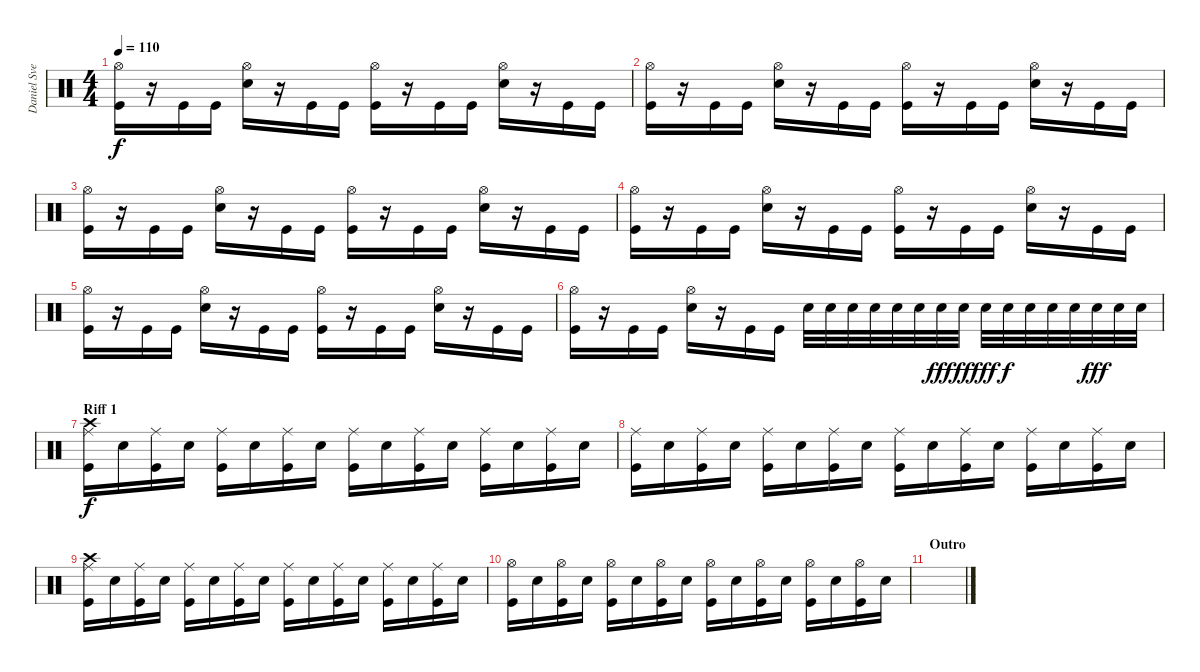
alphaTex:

\track ("Daniel Svensson" "Daniel Sve") {instrument percussion}
\staff {score}
\articulation defaults
\ts (4 4)
\tempo 110
\clef neutral
\ks c
("Hi-Hat (open)" "Kick (hit)").16{dy f} r.16 "Kick (hit)".16 "Kick (hit)".16 ("Hi-Hat (open)" "Electric Snare (hit)").16 r.16 "Kick (hit)".16 "Kick (hit)".16 ("Hi-Hat (open)" "Kick (hit)").16 r.16 "Kick (hit)".16 "Kick (hit)".16 ("Hi-Hat (open)" "Electric Snare (hit)").16 r.16 "Kick (hit)".16 "Kick (hit)".16 |
("Hi-Hat (open)" "Kick (hit)").16 r.16 "Kick (hit)".16 "Kick (hit)".16 ("Hi-Hat (open)" "Electric Snare (hit)").16 r.16 "Kick (hit)".16 "Kick (hit)".16 ("Hi-Hat (open)" "Kick (hit)").16 r.16 "Kick (hit)".16 "Kick (hit)".16 ("Hi-Hat (open)" "Electric Snare (hit)").16 r.16 "Kick (hit)".16 "Kick (hit)".16 |
("Hi-Hat (open)" "Kick (hit)").16 r.16 "Kick (hit)".16 "Kick (hit)".16 ("Hi-Hat (open)" "Electric Snare (hit)").16 r.16 "Kick (hit)".16 "Kick (hit)".16 ("Hi-Hat (open)" "Kick (hit)").16 r.16 "Kick (hit)".16 "Kick (hit)".16 ("Hi-Hat (open)" "Electric Snare (hit)").16 r.16 "Kick (hit)".16 "Kick (hit)".16 |
("Hi-Hat (open)" "Kick (hit)").16 r.16 "Kick (hit)".16 "Kick (hit)".16 ("Hi-Hat (open)" "Electric Snare (hit)").16 r.16 "Kick (hit)".16 "Kick (hit)".16 ("Hi-Hat (open)" "Kick (hit)").16 r.16 "Kick (hit)".16 "Kick (hit)".16 ("Hi-Hat (open)" "Electric Snare (hit)").16 r.16 "Kick (hit)".16 "Kick (hit)".16 |
("Hi-Hat (open)" "Kick (hit)").16 r.16 "Kick (hit)".16 "Kick (hit)".16 ("Hi-Hat (open)" "Electric Snare (hit)").16 r.16 "Kick (hit)".16 "Kick (hit)".16 ("Hi-Hat (open)" "Kick (hit)").16 r.16 "Kick (hit)".16 "Kick (hit)".16 ("Hi-Hat (open)" "Electric Snare (hit)").16 r.16 "Kick (hit)".16 "Kick (hit)".16 |
("Hi-Hat (open)" "Kick (hit)").16 r.16 "Kick (hit)".16 "Kick (hit)".16 ("Hi-Hat (open)" "Electric Snare (hit)").16 r.16 "Kick (hit)".16 "Kick (hit)".16 "Snare (hit) 2".32 "Snare (hit) 2".32 "Snare (hit) 2".32 "Snare (hit) 2".32 "Electric Snare (hit)".32 "Electric Snare (hit)".32 "Electric Snare (hit)".32{dy fff} "Electric Snare (hit)".32{dy ff} "Snare (hit) 2".32{dy fff} "Snare (hit) 2".32{dy f} "Snare (hit) 2".32 "Snare (hit) 2".32 "Electric Snare (hit)".32 "Electric Snare (hit)".32{dy fff} "Electric Snare (hit)".32 "Electric Snare (hit)".32 |
\section ("" "Riff 1")
("Ride (middle)" "Crash high (hit)" "Kick (hit)").16{dy f} "Electric Snare (hit)".16 ("Ride (middle)" "Kick (hit)").16 "Electric Snare (hit)".16 ("Ride (middle)" "Kick (hit)").16 "Electric Snare (hit)".16 ("Ride (middle)" "Kick (hit)").16 "Electric Snare (hit)".16 ("Ride (middle)" "Kick (hit)").16 "Electric Snare (hit)".16 ("Ride (middle)" "Kick (hit)").16 "Electric Snare (hit)".16 ("Ride (middle)" "Kick (hit)").16 "Electric Snare (hit)".16 ("Ride (middle)" "Kick (hit)").16 "Electric Snare (hit)".16 |
("Ride (middle)" "Kick (hit)").16 "Electric Snare (hit)".16 ("Ride (middle)" "Kick (hit)").16 "Electric Snare (hit)".16 ("Ride (middle)" "Kick (hit)").16 "Electric Snare (hit)".16 ("Ride (middle)" "Kick (hit)").16 "Electric Snare (hit)".16 ("Ride (middle)" "Kick (hit)").16 "Electric Snare (hit)".16 ("Ride (middle)" "Kick (hit)").16 "Electric Snare (hit)".16 ("Ride (middle)" "Kick (hit)").16 "Electric Snare (hit)".16 ("Ride (middle)" "Kick (hit)").16 "Electric Snare (hit)".16 |
("Ride (middle)" "Crash high (hit)" "Kick (hit)").16 "Electric Snare (hit)".16 ("Ride (middle)" "Kick (hit)").16 "Electric Snare (hit)".16 ("Ride (middle)" "Kick (hit)").16 "Electric Snare (hit)".16 ("Ride (middle)" "Kick (hit)").16 "Electric Snare (hit)".16 ("Ride (middle)" "Kick (hit)").16 "Electric Snare (hit)".16 ("Ride (middle)" "Kick (hit)").16 "Electric Snare (hit)".16 ("Ride (middle)" "Kick (hit)").16 "Electric Snare (hit)".16 ("Ride (middle)" "Kick (hit)").16 "Electric Snare (hit)".16 |
("Hi-Hat (open)" "Kick (hit)").16 "Electric Snare (hit)".16 ("Hi-Hat (open)" "Kick (hit)").16 "Electric Snare (hit)".16 ("Hi-Hat (open)" "Kick (hit)").16 "Electric Snare (hit)".16 ("Hi-Hat (open)" "Kick (hit)").16 "Electric Snare (hit)".16 ("Hi-Hat (open)" "Kick (hit)").16 "Electric Snare (hit)".16 ("Hi-Hat (open)" "Kick (hit)").16 "Electric Snare (hit)".16 ("Hi-Hat (open)" "Kick (hit)").16 "Electric Snare (hit)".16 ("Hi-Hat (open)" "Kick (hit)").16 "Electric Snare (hit)".16 |
\section ("" "Outro")
